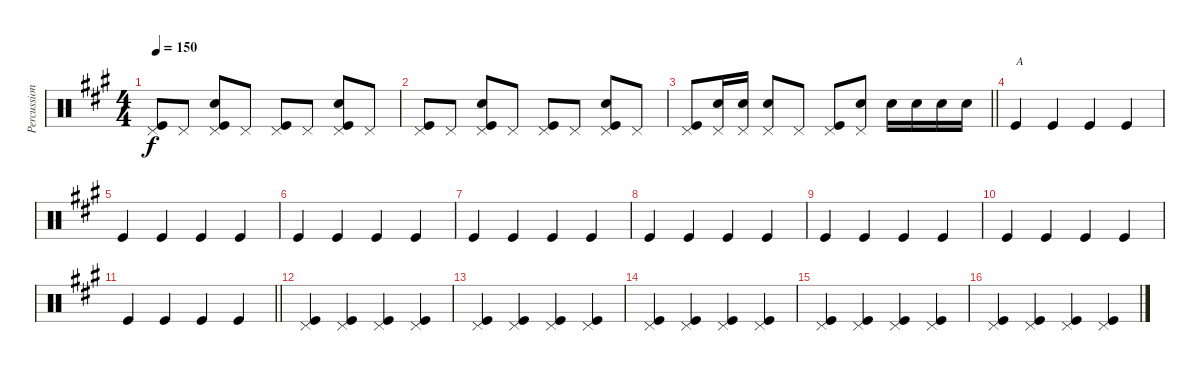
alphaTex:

\track ("Percussions" "Percussion") {instrument percussion}
\staff {score}
\articulation defaults
\ts (4 4)
\tempo 150
\clef neutral
\ks a
("Kick (hit)" "Pedal Hi-Hat (hit)").8{dy f} "Pedal Hi-Hat (hit)".8 ("Snare (hit) 2" "Kick (hit)" "Pedal Hi-Hat (hit)").8 "Pedal Hi-Hat (hit)".8 ("Kick (hit)" "Pedal Hi-Hat (hit)").8 "Pedal Hi-Hat (hit)".8 ("Snare (hit) 2" "Kick (hit)" "Pedal Hi-Hat (hit)").8 "Pedal Hi-Hat (hit)".8 |
("Kick (hit)" "Pedal Hi-Hat (hit)").8 "Pedal Hi-Hat (hit)".8 ("Snare (hit) 2" "Kick (hit)" "Pedal Hi-Hat (hit)").8 "Pedal Hi-Hat (hit)".8 ("Kick (hit)" "Pedal Hi-Hat (hit)").8 "Pedal Hi-Hat (hit)".8 ("Snare (hit) 2" "Kick (hit)" "Pedal Hi-Hat (hit)").8 "Pedal Hi-Hat (hit)".8 |
\barLineRight lightlight
("Kick (hit)" "Pedal Hi-Hat (hit)").8 ("Snare (hit) 2" "Pedal Hi-Hat (hit)").16 ("Snare (hit) 2" "Pedal Hi-Hat (hit)").16 ("Snare (hit) 2" "Pedal Hi-Hat (hit)").8 "Pedal Hi-Hat (hit)".8 ("Kick (hit)" "Pedal Hi-Hat (hit)").8 ("Snare (hit) 2" "Pedal Hi-Hat (hit)").8 "Snare (hit) 2".16 "Snare (hit) 2".16 "Snare (hit) 2".16 "Snare (hit) 2".16 |
"Kick (hit)".4{txt "A"} "Kick (hit)".4 "Kick (hit)".4 "Kick (hit)".4 |
"Kick (hit)".4 "Kick (hit)".4 "Kick (hit)".4 "Kick (hit)".4 |
"Kick (hit)".4 "Kick (hit)".4 "Kick (hit)".4 "Kick (hit)".4 |
"Kick (hit)".4 "Kick (hit)".4 "Kick (hit)".4 "Kick (hit)".4 |
"Kick (hit)".4 "Kick (hit)".4 "Kick (hit)".4 "Kick (hit)".4 |
"Kick (hit)".4 "Kick (hit)".4 "Kick (hit)".4 "Kick (hit)".4 |
"Kick (hit)".4 "Kick (hit)".4 "Kick (hit)".4 "Kick (hit)".4 |
\barLineRight lightlight "Kick (hit)".4 "Kick (hit)".4 "Kick (hit)".4 "Kick (hit)".4
|
("Pedal Hi-Hat (hit)" "Kick (hit)").4 ("Pedal Hi-Hat (hit)" "Kick (hit)").4 ("Pedal Hi-Hat (hit)" "Kick (hit)").4 ("Pedal Hi-Hat (hit)" "Kick (hit)").4 |
("Pedal Hi-Hat (hit)" "Kick (hit)").4 ("Pedal Hi-Hat (hit)" "Kick (hit)").4 ("Pedal Hi-Hat (hit)" "Kick (hit)").4 ("Pedal Hi-Hat (hit)" "Kick (hit)").4 |
("Pedal Hi-Hat (hit)" "Kick (hit)").4 ("Pedal Hi-Hat (hit)" "Kick (hit)").4 ("Pedal Hi-Hat (hit)" "Kick (hit)").4 ("Pedal Hi-Hat (hit)" "Kick (hit)").4 |
("Pedal Hi-Hat (hit)" "Kick (hit)").4 ("Pedal Hi-Hat (hit)" "Kick (hit)").4 ("Pedal Hi-Hat (hit)" "Kick (hit)").4 ("Pedal Hi-Hat (hit)" "Kick (hit)").4 |
("Pedal Hi-Hat (hit)" "Kick (hit)").4 ("Pedal Hi-Hat (hit)" "Kick (hit)").4 ("Pedal Hi-Hat (hit)" "Kick (hit)").4 ("Pedal Hi-Hat (hit)" "Kick (hit)").4
